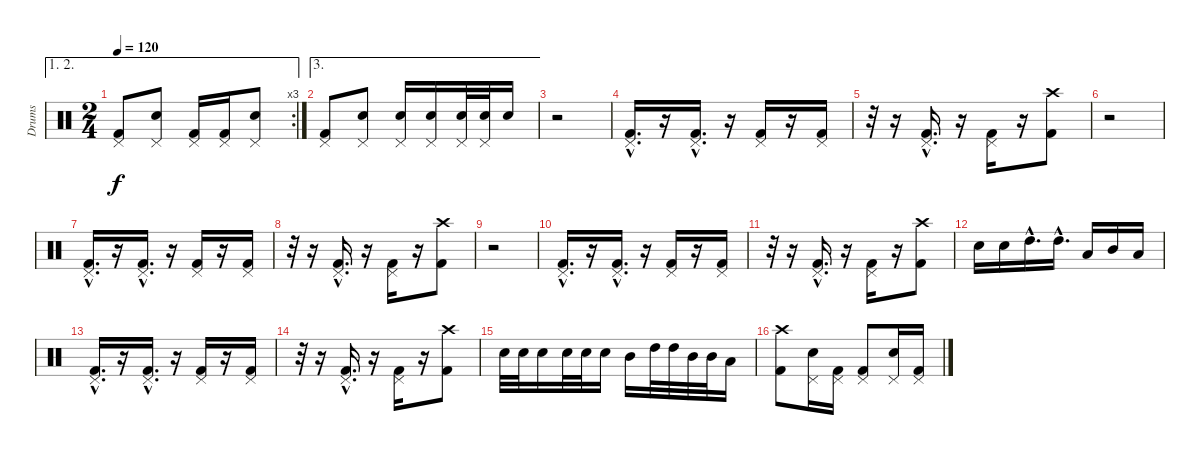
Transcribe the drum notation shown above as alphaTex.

\track ("Drums" "Drums") {instrument percussion}
\staff {score}
\articulation defaults
\ae (1 2)
\rc 3
\ts (2 4)
\tempo 120
\clef neutral
\ks c
("Kick (hit) 2" "Pedal Hi-Hat (hit)").8{dy f} ("Electric Snare (hit)" "Pedal Hi-Hat (hit)").8 ("Kick (hit) 2" "Pedal Hi-Hat (hit)").16 ("Kick (hit) 2" "Pedal Hi-Hat (hit)").16 ("Electric Snare (hit)" "Pedal Hi-Hat (hit)").8 |
\ae 3
("Kick (hit) 2" "Pedal Hi-Hat (hit)").8 ("Electric Snare (hit)" "Pedal Hi-Hat (hit)").8 ("Electric Snare (hit)" "Pedal Hi-Hat (hit)").16 ("Electric Snare (hit)" "Pedal Hi-Hat (hit)").16 ("Electric Snare (hit)" "Pedal Hi-Hat (hit)").32 ("Electric Snare (hit)" "Pedal Hi-Hat (hit)").32 "Electric Snare (hit)".16 |
r.2 |
("Kick (hit) 2"{hac} "Pedal Hi-Hat (hit)"{hac}).16{d} r.16 ("Kick (hit) 2"{hac} "Pedal Hi-Hat (hit)"{hac}).16{d} r.16 ("Kick (hit) 2" "Pedal Hi-Hat (hit)").16 r.16 ("Kick (hit) 2" "Pedal Hi-Hat (hit)").16 |
r.32 r.16 ("Kick (hit) 2"{hac} "Pedal Hi-Hat (hit)"{hac}).16{d} r.16 ("Kick (hit) 2" "Pedal Hi-Hat (hit)").16 r.16 ("Kick (hit) 2" "Crash high (hit)").8 |
r.2 |
("Kick (hit) 2"{hac} "Pedal Hi-Hat (hit)"{hac}).16{d} r.16 ("Kick (hit) 2"{hac} "Pedal Hi-Hat (hit)"{hac}).16{d} r.16 ("Kick (hit) 2" "Pedal Hi-Hat (hit)").16 r.16 ("Kick (hit) 2" "Pedal Hi-Hat (hit)").16 |
r.32 r.16 ("Kick (hit) 2"{hac} "Pedal Hi-Hat (hit)"{hac}).16{d} r.16 ("Kick (hit) 2" "Pedal Hi-Hat (hit)").16 r.16 ("Kick (hit) 2" "Crash high (hit)").8 |
r.2 |
("Kick (hit) 2"{hac} "Pedal Hi-Hat (hit)"{hac}).16{d} r.16 ("Kick (hit) 2"{hac} "Pedal Hi-Hat (hit)"{hac}).16{d} r.16 ("Kick (hit) 2" "Pedal Hi-Hat (hit)").16 r.16 ("Kick (hit) 2" "Pedal Hi-Hat (hit)").16 |
r.32 r.16 ("Kick (hit) 2"{hac} "Pedal Hi-Hat (hit)"{hac}).16{d} r.16 ("Kick (hit) 2" "Pedal Hi-Hat (hit)").16 r.16 ("Kick (hit) 2" "Crash high (hit)").8 |
"Electric Snare (hit)".16 "Electric Snare (hit)".16 "High Tom (hit)"{hac}.16{d} "High Tom (hit)"{hac}.16{d} "Low Tom (hit)".16 "Mid Tom (hit)".16 "Low Tom (hit)".16 |
("Kick (hit) 2"{hac} "Pedal Hi-Hat (hit)"{hac}).16{d} r.16 ("Kick (hit) 2"{hac} "Pedal Hi-Hat (hit)"{hac}).16{d} r.16 ("Kick (hit) 2" "Pedal Hi-Hat (hit)").16 r.16 ("Kick (hit) 2" "Pedal Hi-Hat (hit)").16 |
r.32 r.16 ("Kick (hit) 2"{hac} "Pedal Hi-Hat (hit)"{hac}).16{d} r.16 ("Kick (hit) 2" "Pedal Hi-Hat (hit)").16 r.16 ("Kick (hit) 2" "Crash high (hit)").8 |
"Electric Snare (hit)".32 "Electric Snare (hit)".32 "Electric Snare (hit)".16 "Electric Snare (hit)".32 "Electric Snare (hit)".32 "Electric Snare (hit)".16 "Mid Tom (hit)".16 "High Tom (hit)".32 "High Tom (hit)".32 "Mid Tom (hit)".32 "Mid Tom (hit)".32 "Low Tom (hit)".16 |
("Kick (hit) 2" "Crash high (hit)").8 ("Electric Snare (hit)" "Pedal Hi-Hat (hit)").16 ("Kick (hit) 2" "Pedal Hi-Hat (hit)").16 ("Kick (hit) 2" "Pedal Hi-Hat (hit)").8 ("Electric Snare (hit)" "Pedal Hi-Hat (hit)").16 ("Kick (hit) 2" "Pedal Hi-Hat (hit)").16
